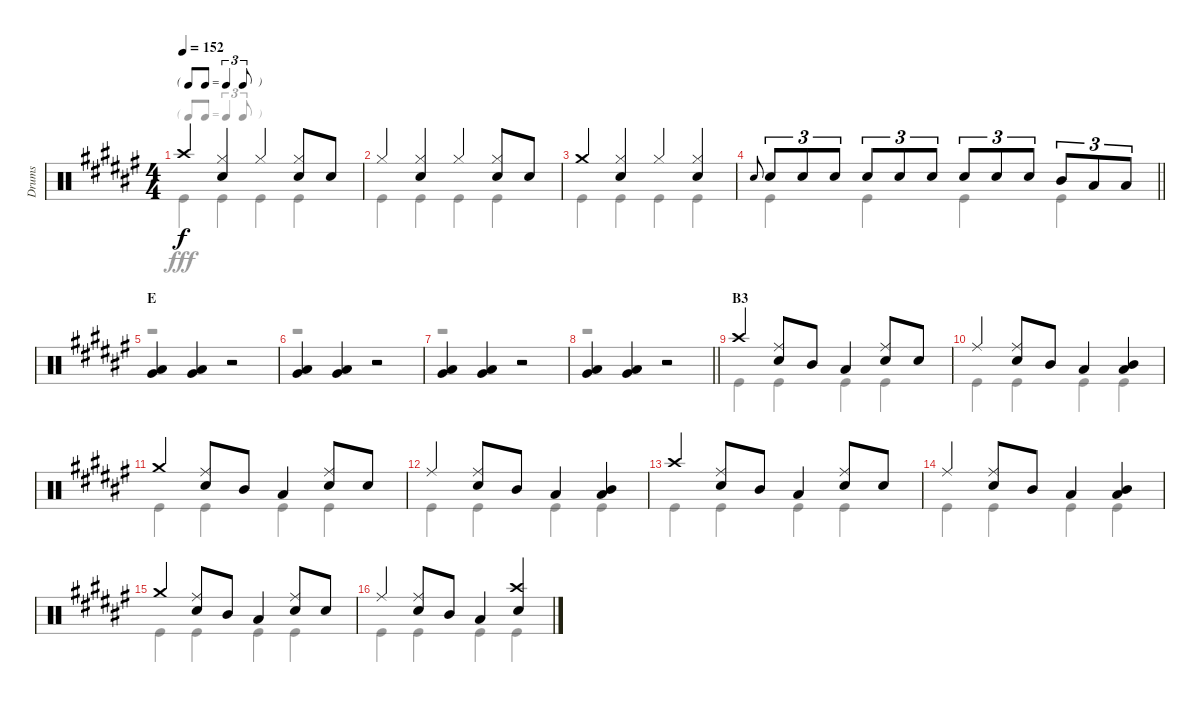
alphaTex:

\track ("Drums" "Drums") {instrument percussion}
\staff {score}
\articulation defaults
\voice
\ts (4 4)
\tf triplet8th
\tempo 152
\clef neutral
\ks f# "Crash high (hit)".4{dy f}
("Hi-Hat (closed)" "Snare (hit) 2").4 "Hi-Hat (closed)".4 ("Hi-Hat (closed)" "Snare (hit) 2").8 "Snare (hit) 2".8 |
"Hi-Hat (closed)".4 ("Hi-Hat (closed)" "Snare (hit) 2").4 "Hi-Hat (closed)".4 ("Hi-Hat (closed)" "Snare (hit) 2").8 "Snare (hit) 2".8 |
"Crash medium (hit)".4 ("Hi-Hat (closed)" "Snare (hit) 2").4 "Hi-Hat (closed)".4 ("Hi-Hat (closed)" "Snare (hit) 2").4 |
\barLineRight lightlight "Snare (hit) 2".8{gr onbeat} "Snare (hit) 2".8{tu (3 2)} "Snare (hit) 2".8{tu (3 2)} "Snare (hit) 2".8{tu (3 2)} "Snare (hit) 2".8{tu (3 2)} "Snare (hit) 2".8{tu (3 2)} "Snare (hit) 2".8{tu (3 2)} "Snare (hit) 2".8{tu (3 2)} "Snare (hit) 2".8{tu (3 2)} "Snare (hit) 2".8{tu (3 2)} "Mid Tom (hit)".8{tu (3 2)} "Low Tom (hit)".8{tu (3 2)} "Low Tom (hit)".8{tu (3 2)}
|
\section ("" "E")
("Low Tom (hit)" "Very Low Tom (hit)").4 ("Low Tom (hit)" "Very Low Tom (hit)").4 r.2 |
("Low Tom (hit)" "Very Low Tom (hit)").4 ("Low Tom (hit)" "Very Low Tom (hit)").4 r.2 |
("Low Tom (hit)" "Very Low Tom (hit)").4 ("Low Tom (hit)" "Very Low Tom (hit)").4 r.2 |
\barLineRight lightlight
("Low Tom (hit)" "Very Low Tom (hit)").4 ("Low Tom (hit)" "Very Low Tom (hit)").4 r.2 |
\section ("" "B3")
"Crash high (hit)".4 ("Ride (middle)" "Snare (hit) 2").8 "Mid Tom (hit)".8 "Low Tom (hit)".4 ("Ride (middle)" "Snare (hit) 2").8 "Snare (hit) 2".8 |
"Ride (middle)".4 ("Ride (middle)" "Snare (hit) 2").8 "Mid Tom (hit)".8 "Low Tom (hit)".4 ("Mid Tom (hit)" "Low Tom (hit)").4 |
"Crash medium (hit)".4 ("Ride (middle)" "Snare (hit) 2").8 "Mid Tom (hit)".8 "Low Tom (hit)".4 ("Ride (middle)" "Snare (hit) 2").8 "Snare (hit) 2".8 |
"Ride (middle)".4 ("Ride (middle)" "Snare (hit) 2").8 "Mid Tom (hit)".8 "Low Tom (hit)".4 ("Mid Tom (hit)" "Low Tom (hit)").4 |
"Crash high (hit)".4 ("Ride (middle)" "Snare (hit) 2").8 "Mid Tom (hit)".8 "Low Tom (hit)".4 ("Ride (middle)" "Snare (hit) 2").8 "Snare (hit) 2".8 |
"Ride (middle)".4 ("Ride (middle)" "Snare (hit) 2").8 "Mid Tom (hit)".8 "Low Tom (hit)".4 ("Mid Tom (hit)" "Low Tom (hit)").4 |
"Crash medium (hit)".4 ("Ride (middle)" "Snare (hit) 2").8 "Mid Tom (hit)".8 "Low Tom (hit)".4 ("Ride (middle)" "Snare (hit) 2").8 "Snare (hit) 2".8 |
"Ride (middle)".4 ("Ride (middle)" "Snare (hit) 2").8 "Mid Tom (hit)".8 "Low Tom (hit)".4 ("Crash high (hit)" "Snare (hit) 2").4
\voice
\clef neutral
\ottava regular
\simile none
\ks f# "Kick (hit)".4{dy fff} "Kick (hit)".4 "Kick (hit)".4 "Kick (hit)".4
|
"Kick (hit)".4 "Kick (hit)".4 "Kick (hit)".4 "Kick (hit)".4 |
"Kick (hit)".4 "Kick (hit)".4 "Kick (hit)".4 "Kick (hit)".4 |
\barLineRight lightlight "Kick (hit)".4 "Kick (hit)".4 "Kick (hit)".4 "Kick (hit)".4
|
r.1 |
r.1 |
r.1 |
\barLineRight lightlight
r.1 |
"Kick (hit)".4 "Kick (hit)".4 "Kick (hit)".4 "Kick (hit)".4 |
"Kick (hit)".4 "Kick (hit)".4 "Kick (hit)".4 "Kick (hit)".4 |
"Kick (hit)".4 "Kick (hit)".4 "Kick (hit)".4 "Kick (hit)".4 |
"Kick (hit)".4 "Kick (hit)".4 "Kick (hit)".4 "Kick (hit)".4 |
"Kick (hit)".4 "Kick (hit)".4 "Kick (hit)".4 "Kick (hit)".4 |
"Kick (hit)".4 "Kick (hit)".4 "Kick (hit)".4 "Kick (hit)".4 |
"Kick (hit)".4 "Kick (hit)".4 "Kick (hit)".4 "Kick (hit)".4 |
"Kick (hit)".4 "Kick (hit)".4 "Kick (hit)".4 "Kick (hit)".4
